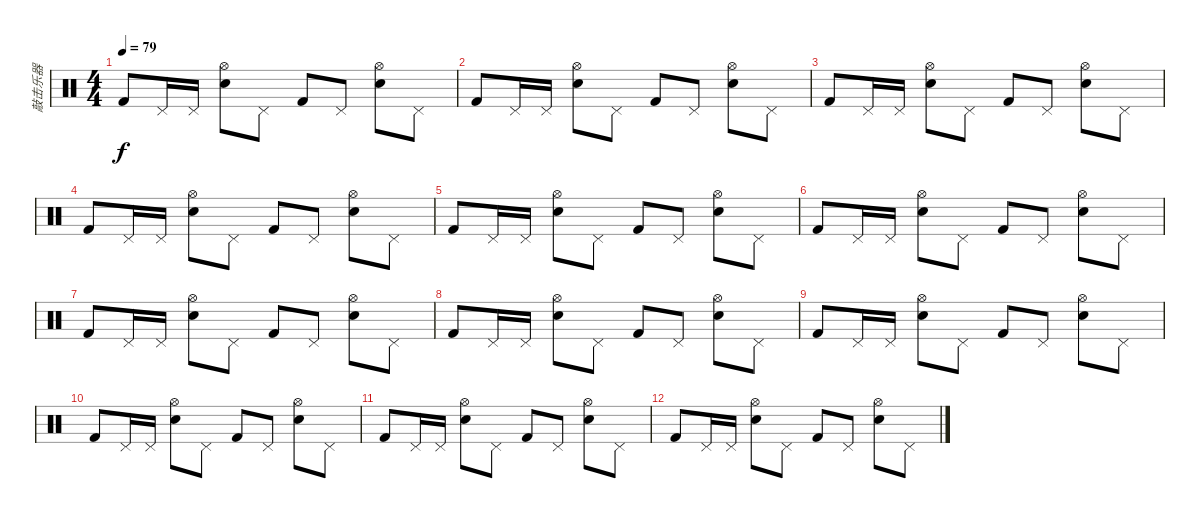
\track ("敲击乐器" "敲击乐器") {instrument percussion}
\staff {score}
\articulation defaults
\ts (4 4)
\tempo 79
\clef neutral
\ks c "Kick (hit) 2".8{dy f} "Pedal Hi-Hat (hit)".16 "Pedal Hi-Hat (hit)".16
("Hi-Hat (open)" "Electric Snare (hit)").8 "Pedal Hi-Hat (hit)".8 "Kick (hit) 2".8 "Pedal Hi-Hat (hit)".8 ("Hi-Hat (open)" "Electric Snare (hit)").8 "Pedal Hi-Hat (hit)".8 |
"Kick (hit) 2".8 "Pedal Hi-Hat (hit)".16 "Pedal Hi-Hat (hit)".16 ("Hi-Hat (open)" "Electric Snare (hit)").8 "Pedal Hi-Hat (hit)".8 "Kick (hit) 2".8 "Pedal Hi-Hat (hit)".8 ("Hi-Hat (open)" "Electric Snare (hit)").8 "Pedal Hi-Hat (hit)".8 |
"Kick (hit) 2".8 "Pedal Hi-Hat (hit)".16 "Pedal Hi-Hat (hit)".16 ("Hi-Hat (open)" "Electric Snare (hit)").8 "Pedal Hi-Hat (hit)".8 "Kick (hit) 2".8 "Pedal Hi-Hat (hit)".8 ("Hi-Hat (open)" "Electric Snare (hit)").8 "Pedal Hi-Hat (hit)".8 |
"Kick (hit) 2".8 "Pedal Hi-Hat (hit)".16 "Pedal Hi-Hat (hit)".16 ("Hi-Hat (open)" "Electric Snare (hit)").8 "Pedal Hi-Hat (hit)".8 "Kick (hit) 2".8 "Pedal Hi-Hat (hit)".8 ("Hi-Hat (open)" "Electric Snare (hit)").8 "Pedal Hi-Hat (hit)".8 |
"Kick (hit) 2".8 "Pedal Hi-Hat (hit)".16 "Pedal Hi-Hat (hit)".16 ("Hi-Hat (open)" "Electric Snare (hit)").8 "Pedal Hi-Hat (hit)".8 "Kick (hit) 2".8 "Pedal Hi-Hat (hit)".8 ("Hi-Hat (open)" "Electric Snare (hit)").8 "Pedal Hi-Hat (hit)".8 |
"Kick (hit) 2".8 "Pedal Hi-Hat (hit)".16 "Pedal Hi-Hat (hit)".16 ("Hi-Hat (open)" "Electric Snare (hit)").8 "Pedal Hi-Hat (hit)".8 "Kick (hit) 2".8 "Pedal Hi-Hat (hit)".8 ("Hi-Hat (open)" "Electric Snare (hit)").8 "Pedal Hi-Hat (hit)".8 |
"Kick (hit) 2".8 "Pedal Hi-Hat (hit)".16 "Pedal Hi-Hat (hit)".16 ("Hi-Hat (open)" "Electric Snare (hit)").8 "Pedal Hi-Hat (hit)".8 "Kick (hit) 2".8 "Pedal Hi-Hat (hit)".8 ("Hi-Hat (open)" "Electric Snare (hit)").8 "Pedal Hi-Hat (hit)".8 |
"Kick (hit) 2".8 "Pedal Hi-Hat (hit)".16 "Pedal Hi-Hat (hit)".16 ("Hi-Hat (open)" "Electric Snare (hit)").8 "Pedal Hi-Hat (hit)".8 "Kick (hit) 2".8 "Pedal Hi-Hat (hit)".8 ("Hi-Hat (open)" "Electric Snare (hit)").8 "Pedal Hi-Hat (hit)".8 |
"Kick (hit) 2".8 "Pedal Hi-Hat (hit)".16 "Pedal Hi-Hat (hit)".16 ("Hi-Hat (open)" "Electric Snare (hit)").8 "Pedal Hi-Hat (hit)".8 "Kick (hit) 2".8 "Pedal Hi-Hat (hit)".8 ("Hi-Hat (open)" "Electric Snare (hit)").8 "Pedal Hi-Hat (hit)".8 |
"Kick (hit) 2".8 "Pedal Hi-Hat (hit)".16 "Pedal Hi-Hat (hit)".16 ("Hi-Hat (open)" "Electric Snare (hit)").8 "Pedal Hi-Hat (hit)".8 "Kick (hit) 2".8 "Pedal Hi-Hat (hit)".8 ("Hi-Hat (open)" "Electric Snare (hit)").8 "Pedal Hi-Hat (hit)".8 |
"Kick (hit) 2".8 "Pedal Hi-Hat (hit)".16 "Pedal Hi-Hat (hit)".16 ("Hi-Hat (open)" "Electric Snare (hit)").8 "Pedal Hi-Hat (hit)".8 "Kick (hit) 2".8 "Pedal Hi-Hat (hit)".8 ("Hi-Hat (open)" "Electric Snare (hit)").8 "Pedal Hi-Hat (hit)".8 |
"Kick (hit) 2".8 "Pedal Hi-Hat (hit)".16 "Pedal Hi-Hat (hit)".16 ("Hi-Hat (open)" "Electric Snare (hit)").8 "Pedal Hi-Hat (hit)".8 "Kick (hit) 2".8 "Pedal Hi-Hat (hit)".8 ("Hi-Hat (open)" "Electric Snare (hit)").8 "Pedal Hi-Hat (hit)".8
